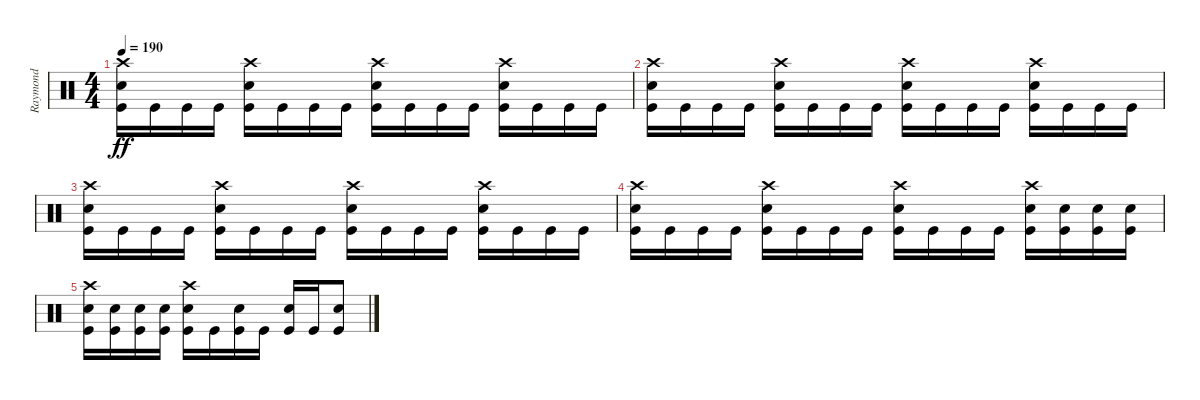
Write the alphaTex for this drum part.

\track ("Raymond" "Raymond") {instrument percussion}
\staff {score}
\articulation defaults
\ts (4 4)
\tempo 190
\clef neutral
\ks c
("Kick (hit)" "Snare (hit) 2" "Crash high (hit)").16{dy ff} "Kick (hit)".16 "Kick (hit)".16 "Kick (hit)".16 ("Kick (hit)" "Snare (hit) 2" "Crash high (hit)").16 "Kick (hit)".16 "Kick (hit)".16 "Kick (hit)".16 ("Kick (hit)" "Snare (hit) 2" "Crash high (hit)").16 "Kick (hit)".16 "Kick (hit)".16 "Kick (hit)".16 ("Kick (hit)" "Snare (hit) 2" "Crash high (hit)").16 "Kick (hit)".16 "Kick (hit)".16 "Kick (hit)".16 |
("Kick (hit)" "Snare (hit) 2" "Crash high (hit)").16 "Kick (hit)".16 "Kick (hit)".16 "Kick (hit)".16 ("Kick (hit)" "Snare (hit) 2" "Crash high (hit)").16 "Kick (hit)".16 "Kick (hit)".16 "Kick (hit)".16 ("Kick (hit)" "Snare (hit) 2" "Crash high (hit)").16 "Kick (hit)".16 "Kick (hit)".16 "Kick (hit)".16 ("Kick (hit)" "Snare (hit) 2" "Crash high (hit)").16 "Kick (hit)".16 "Kick (hit)".16 "Kick (hit)".16 |
("Kick (hit)" "Snare (hit) 2" "Crash high (hit)").16 "Kick (hit)".16 "Kick (hit)".16 "Kick (hit)".16 ("Kick (hit)" "Snare (hit) 2" "Crash high (hit)").16 "Kick (hit)".16 "Kick (hit)".16 "Kick (hit)".16 ("Kick (hit)" "Snare (hit) 2" "Crash high (hit)").16 "Kick (hit)".16 "Kick (hit)".16 "Kick (hit)".16 ("Kick (hit)" "Snare (hit) 2" "Crash high (hit)").16 "Kick (hit)".16 "Kick (hit)".16 "Kick (hit)".16 |
("Kick (hit)" "Snare (hit) 2" "Crash high (hit)").16 "Kick (hit)".16 "Kick (hit)".16 "Kick (hit)".16 ("Kick (hit)" "Snare (hit) 2" "Crash high (hit)").16 "Kick (hit)".16 "Kick (hit)".16 "Kick (hit)".16 ("Kick (hit)" "Snare (hit) 2" "Crash high (hit)").16 "Kick (hit)".16 "Kick (hit)".16 "Kick (hit)".16 ("Kick (hit)" "Snare (hit) 2" "Crash high (hit)").16 ("Kick (hit)" "Snare (hit) 2").16 ("Kick (hit)" "Snare (hit) 2").16 ("Kick (hit)" "Snare (hit) 2").16 |
("Kick (hit)" "Snare (hit) 2" "Crash high (hit)").16 ("Kick (hit)" "Snare (hit) 2").16 ("Kick (hit)" "Snare (hit) 2").16 ("Kick (hit)" "Snare (hit) 2").16 ("Kick (hit)" "Snare (hit) 2" "Crash high (hit)").16 "Kick (hit)".16 ("Kick (hit)" "Snare (hit) 2").16 "Kick (hit)".16 ("Kick (hit)" "Snare (hit) 2").16 "Kick (hit)".16 ("Kick (hit)" "Snare (hit) 2").8
